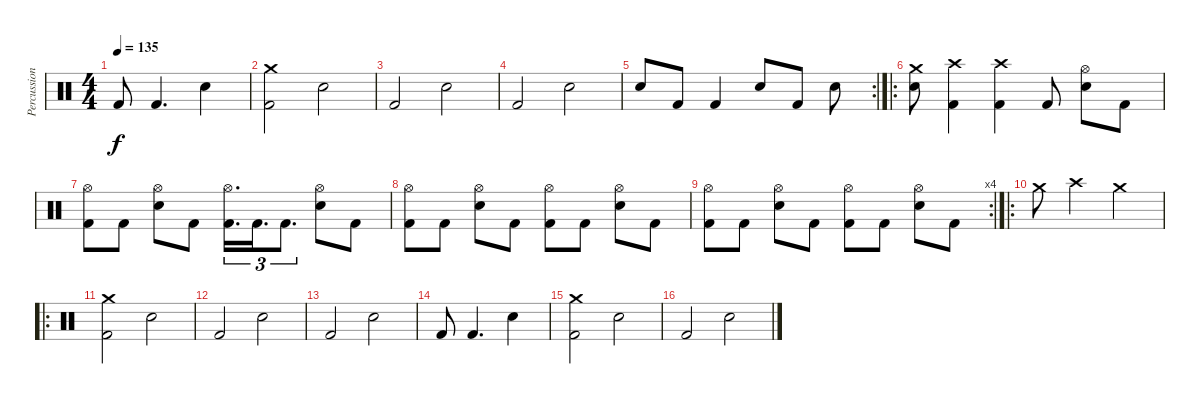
\track ("Percussion" "Percussion") {instrument percussion}
\staff {score}
\articulation defaults
\ts (4 4)
\tempo 135
\clef neutral
\ks c "Kick (hit) 2".8{dy f} "Kick (hit) 2".4{d} "Snare (hit) 2".4
|
("Crash medium (hit)" "Kick (hit) 2").2 "Snare (hit) 2".2 |
"Kick (hit) 2".2 "Snare (hit) 2".2 |
"Kick (hit) 2".2 "Snare (hit) 2".2 |
\rc 2 "Snare (hit) 2".8 "Kick (hit) 2".8 "Kick (hit) 2".4 "Snare (hit) 2".8 "Kick (hit) 2".8 "Snare (hit) 2".8
|
\ro
("Crash medium (hit)" "Snare (hit) 2").8 ("Crash high (hit)" "Kick (hit) 2").4 ("Crash high (hit)" "Kick (hit) 2").4 "Kick (hit) 2".8 ("Hi-Hat (open)" "Snare (hit) 2").8 "Kick (hit) 2".8 |
("Hi-Hat (open)" "Kick (hit) 2").8 "Kick (hit) 2".8 ("Hi-Hat (open)" "Snare (hit) 2").8 "Kick (hit) 2".8 ("Hi-Hat (open)" "Kick (hit) 2").16{d tu (3 2)} "Kick (hit) 2".16{d tu (3 2)} "Kick (hit) 2".8{d tu (3 2)} ("Hi-Hat (open)" "Snare (hit) 2").8 "Kick (hit) 2".8 |
("Hi-Hat (open)" "Kick (hit) 2").8 "Kick (hit) 2".8 ("Hi-Hat (open)" "Snare (hit) 2").8 "Kick (hit) 2".8 ("Hi-Hat (open)" "Kick (hit) 2").8 "Kick (hit) 2".8 ("Hi-Hat (open)" "Snare (hit) 2").8 "Kick (hit) 2".8 |
\rc 4
("Hi-Hat (open)" "Kick (hit) 2").8 "Kick (hit) 2".8 ("Hi-Hat (open)" "Snare (hit) 2").8 "Kick (hit) 2".8 ("Hi-Hat (open)" "Kick (hit) 2").8 "Kick (hit) 2".8 ("Hi-Hat (open)" "Snare (hit) 2").8 "Kick (hit) 2".8 |
\ro "Crash medium (hit)".8 "Crash high (hit)".4 "Crash medium (hit)".4
|
\ro
("Crash medium (hit)" "Kick (hit) 2").2 "Snare (hit) 2".2 |
"Kick (hit) 2".2 "Snare (hit) 2".2 |
"Kick (hit) 2".2 "Snare (hit) 2".2 |
"Kick (hit) 2".8 "Kick (hit) 2".4{d} "Snare (hit) 2".4 |
("Crash medium (hit)" "Kick (hit) 2").2 "Snare (hit) 2".2 |
"Kick (hit) 2".2 "Snare (hit) 2".2
